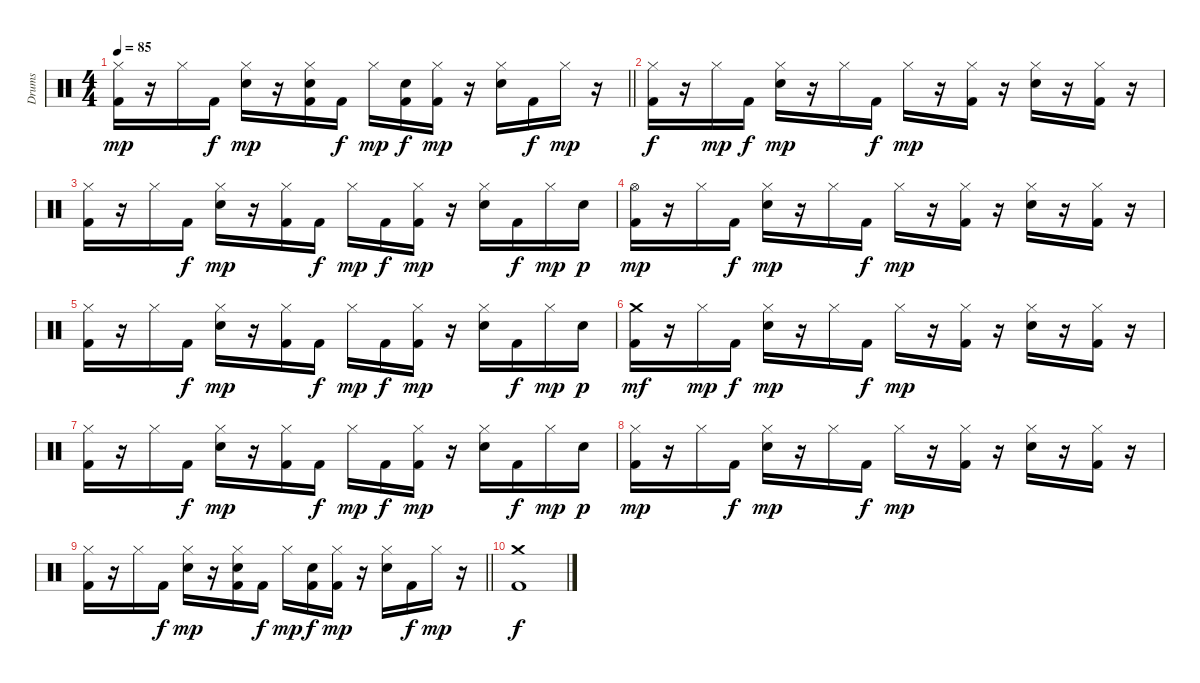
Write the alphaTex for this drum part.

\track ("Drums" "Drums") {instrument percussion}
\staff {score}
\articulation defaults
\ts (4 4)
\tempo 85
\clef neutral
\barLineRight lightlight
\ks c
("Hi-Hat (closed)" "Kick (hit) 2").16{dy mp} r.16 "Hi-Hat (closed)".16 "Kick (hit) 2".16{dy f} ("Hi-Hat (closed)" "Snare (hit) 2").16{dy mp} r.16 ("Hi-Hat (closed)" "Snare (hit) 2" "Kick (hit) 2").16 "Kick (hit) 2".16{dy f} "Hi-Hat (closed)".16{dy mp} ("Snare (hit) 2" "Kick (hit) 2").16{dy f} ("Hi-Hat (closed)" "Kick (hit) 2").16{dy mp} r.16 ("Hi-Hat (closed)" "Snare (hit) 2").16 "Kick (hit) 2".16{dy f} "Hi-Hat (closed)".16{dy mp} r.16 |
("Hi-Hat (closed)" "Kick (hit) 2").16{dy f} r.16 "Hi-Hat (closed)".16{dy mp} "Kick (hit) 2".16{dy f} ("Hi-Hat (closed)" "Snare (hit) 2").16{dy mp} r.16 "Hi-Hat (closed)".16 "Kick (hit) 2".16{dy f} "Hi-Hat (closed)".16{dy mp} r.16 ("Hi-Hat (closed)" "Kick (hit) 2").16 r.16 ("Hi-Hat (closed)" "Snare (hit) 2").16 r.16 ("Hi-Hat (closed)" "Kick (hit) 2").16 r.16 |
("Hi-Hat (closed)" "Kick (hit) 2").16 r.16 "Hi-Hat (closed)".16 "Kick (hit) 2".16{dy f} ("Hi-Hat (closed)" "Snare (hit) 2").16{dy mp} r.16 ("Hi-Hat (closed)" "Kick (hit) 2").16 "Kick (hit) 2".16{dy f} "Hi-Hat (closed)".16{dy mp} "Kick (hit) 2".16{dy f} ("Hi-Hat (closed)" "Kick (hit) 2").16{dy mp} r.16 ("Hi-Hat (closed)" "Snare (hit) 2").16 "Kick (hit) 2".16{dy f} "Hi-Hat (closed)".16{dy mp} "Snare (hit) 2".16{dy p} |
("Hi-Hat (open)" "Kick (hit) 2").16{dy mp} r.16 "Hi-Hat (closed)".16 "Kick (hit) 2".16{dy f} ("Hi-Hat (closed)" "Snare (hit) 2").16{dy mp} r.16 "Hi-Hat (closed)".16 "Kick (hit) 2".16{dy f} "Hi-Hat (closed)".16{dy mp} r.16 ("Hi-Hat (closed)" "Kick (hit) 2").16 r.16 ("Hi-Hat (closed)" "Snare (hit) 2").16 r.16 ("Hi-Hat (closed)" "Kick (hit) 2").16 r.16 |
("Hi-Hat (closed)" "Kick (hit) 2").16 r.16 "Hi-Hat (closed)".16 "Kick (hit) 2".16{dy f} ("Hi-Hat (closed)" "Snare (hit) 2").16{dy mp} r.16 ("Hi-Hat (closed)" "Kick (hit) 2").16 "Kick (hit) 2".16{dy f} "Hi-Hat (closed)".16{dy mp} "Kick (hit) 2".16{dy f} ("Hi-Hat (closed)" "Kick (hit) 2").16{dy mp} r.16 ("Hi-Hat (closed)" "Snare (hit) 2").16 "Kick (hit) 2".16{dy f} "Hi-Hat (closed)".16{dy mp} "Snare (hit) 2".16{dy p} |
("Crash medium (hit)" "Kick (hit) 2").16{dy mf} r.16 "Hi-Hat (closed)".16{dy mp} "Kick (hit) 2".16{dy f} ("Hi-Hat (closed)" "Snare (hit) 2").16{dy mp} r.16 "Hi-Hat (closed)".16 "Kick (hit) 2".16{dy f} "Hi-Hat (closed)".16{dy mp} r.16 ("Hi-Hat (closed)" "Kick (hit) 2").16 r.16 ("Hi-Hat (closed)" "Snare (hit) 2").16 r.16 ("Hi-Hat (closed)" "Kick (hit) 2").16 r.16 |
("Hi-Hat (closed)" "Kick (hit) 2").16 r.16 "Hi-Hat (closed)".16 "Kick (hit) 2".16{dy f} ("Hi-Hat (closed)" "Snare (hit) 2").16{dy mp} r.16 ("Hi-Hat (closed)" "Kick (hit) 2").16 "Kick (hit) 2".16{dy f} "Hi-Hat (closed)".16{dy mp} "Kick (hit) 2".16{dy f} ("Hi-Hat (closed)" "Kick (hit) 2").16{dy mp} r.16 ("Hi-Hat (closed)" "Snare (hit) 2").16 "Kick (hit) 2".16{dy f} "Hi-Hat (closed)".16{dy mp} "Snare (hit) 2".16{dy p} |
("Hi-Hat (closed)" "Kick (hit) 2").16{dy mp} r.16 "Hi-Hat (closed)".16 "Kick (hit) 2".16{dy f} ("Hi-Hat (closed)" "Snare (hit) 2").16{dy mp} r.16 "Hi-Hat (closed)".16 "Kick (hit) 2".16{dy f} "Hi-Hat (closed)".16{dy mp} r.16 ("Hi-Hat (closed)" "Kick (hit) 2").16 r.16 ("Hi-Hat (closed)" "Snare (hit) 2").16 r.16 ("Hi-Hat (closed)" "Kick (hit) 2").16 r.16 |
\barLineRight lightlight
("Hi-Hat (closed)" "Kick (hit) 2").16 r.16 "Hi-Hat (closed)".16 "Kick (hit) 2".16{dy f} ("Hi-Hat (closed)" "Snare (hit) 2").16{dy mp} r.16 ("Hi-Hat (closed)" "Snare (hit) 2" "Kick (hit) 2").16 "Kick (hit) 2".16{dy f} "Hi-Hat (closed)".16{dy mp} ("Snare (hit) 2" "Kick (hit) 2").16{dy f} ("Hi-Hat (closed)" "Kick (hit) 2").16{dy mp} r.16 ("Hi-Hat (closed)" "Snare (hit) 2").16 "Kick (hit) 2".16{dy f} "Hi-Hat (closed)".16{dy mp} r.16 |
("Crash medium (hit)" "Kick (hit) 2").1{dy f}
